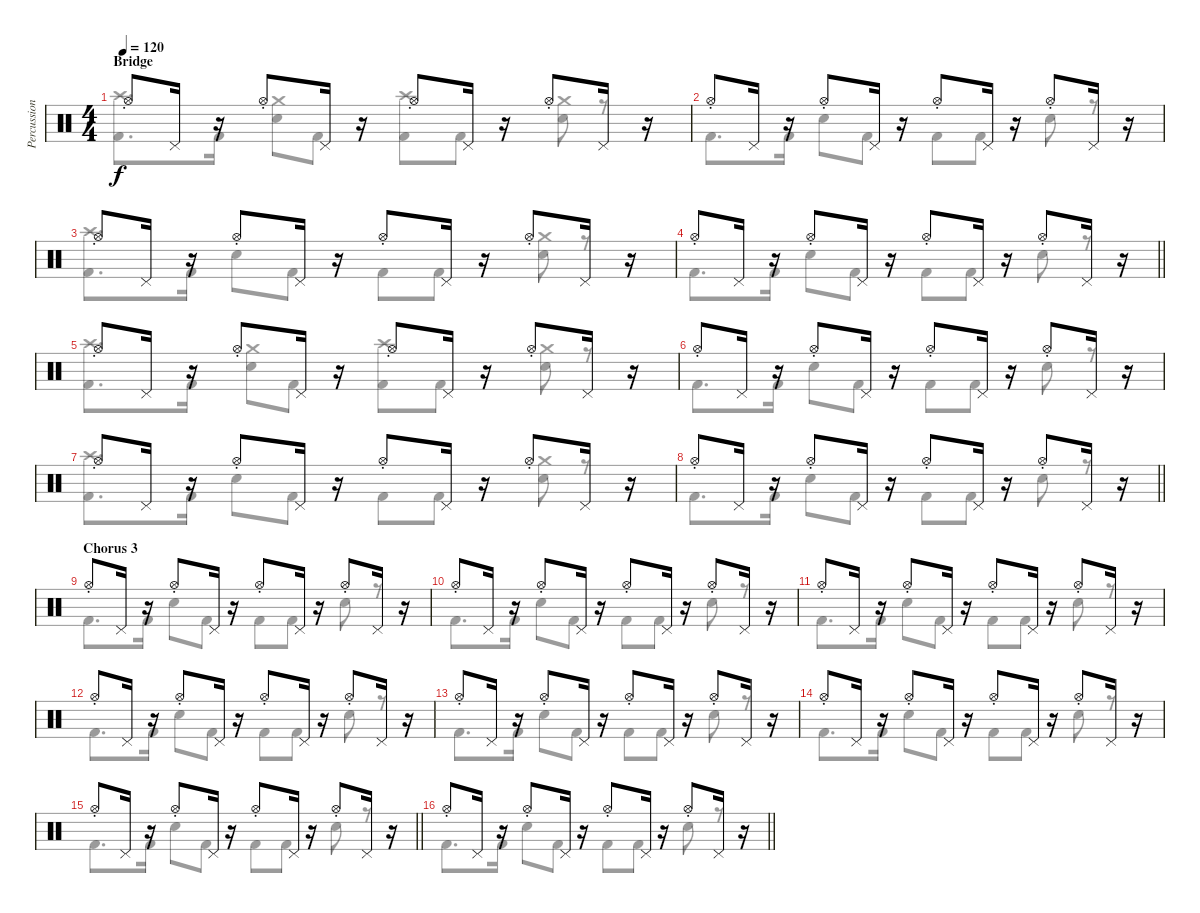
\track ("Percussion" "Percussion") {instrument percussion}
\staff {score}
\articulation defaults
\voice
\ts (4 4)
\section ("" "Bridge")
\tempo 120
\clef neutral
\ks c "Hi-Hat (open)"{st}.8{dy f} "Pedal Hi-Hat (hit)".16
r.16 "Hi-Hat (open)"{st}.8 "Pedal Hi-Hat (hit)".16 r.16 "Hi-Hat (open)"{st}.8 "Pedal Hi-Hat (hit)".16 r.16 "Hi-Hat (open)"{st}.8 "Pedal Hi-Hat (hit)".16 r.16 |
"Hi-Hat (open)"{st}.8 "Pedal Hi-Hat (hit)".16 r.16 "Hi-Hat (open)"{st}.8 "Pedal Hi-Hat (hit)".16 r.16 "Hi-Hat (open)"{st}.8 "Pedal Hi-Hat (hit)".16 r.16 "Hi-Hat (open)"{st}.8 "Pedal Hi-Hat (hit)".16 r.16 |
"Hi-Hat (open)"{st}.8 "Pedal Hi-Hat (hit)".16 r.16 "Hi-Hat (open)"{st}.8 "Pedal Hi-Hat (hit)".16 r.16 "Hi-Hat (open)"{st}.8 "Pedal Hi-Hat (hit)".16 r.16 "Hi-Hat (open)"{st}.8 "Pedal Hi-Hat (hit)".16 r.16 |
\barLineRight lightlight "Hi-Hat (open)"{st}.8 "Pedal Hi-Hat (hit)".16
r.16 "Hi-Hat (open)"{st}.8 "Pedal Hi-Hat (hit)".16 r.16 "Hi-Hat (open)"{st}.8 "Pedal Hi-Hat (hit)".16 r.16 "Hi-Hat (open)"{st}.8 "Pedal Hi-Hat (hit)".16 r.16 |
"Hi-Hat (open)"{st}.8 "Pedal Hi-Hat (hit)".16 r.16 "Hi-Hat (open)"{st}.8 "Pedal Hi-Hat (hit)".16 r.16 "Hi-Hat (open)"{st}.8 "Pedal Hi-Hat (hit)".16 r.16 "Hi-Hat (open)"{st}.8 "Pedal Hi-Hat (hit)".16 r.16 |
"Hi-Hat (open)"{st}.8 "Pedal Hi-Hat (hit)".16 r.16 "Hi-Hat (open)"{st}.8 "Pedal Hi-Hat (hit)".16 r.16 "Hi-Hat (open)"{st}.8 "Pedal Hi-Hat (hit)".16 r.16 "Hi-Hat (open)"{st}.8 "Pedal Hi-Hat (hit)".16 r.16 |
"Hi-Hat (open)"{st}.8 "Pedal Hi-Hat (hit)".16 r.16 "Hi-Hat (open)"{st}.8 "Pedal Hi-Hat (hit)".16 r.16 "Hi-Hat (open)"{st}.8 "Pedal Hi-Hat (hit)".16 r.16 "Hi-Hat (open)"{st}.8 "Pedal Hi-Hat (hit)".16 r.16 |
\barLineRight lightlight "Hi-Hat (open)"{st}.8 "Pedal Hi-Hat (hit)".16
r.16 "Hi-Hat (open)"{st}.8 "Pedal Hi-Hat (hit)".16 r.16 "Hi-Hat (open)"{st}.8 "Pedal Hi-Hat (hit)".16 r.16 "Hi-Hat (open)"{st}.8 "Pedal Hi-Hat (hit)".16 r.16 |
\section ("" "Chorus 3")
"Hi-Hat (open)"{st}.8 "Pedal Hi-Hat (hit)".16 r.16 "Hi-Hat (open)"{st}.8 "Pedal Hi-Hat (hit)".16 r.16 "Hi-Hat (open)"{st}.8 "Pedal Hi-Hat (hit)".16 r.16 "Hi-Hat (open)"{st}.8 "Pedal Hi-Hat (hit)".16 r.16 |
"Hi-Hat (open)"{st}.8 "Pedal Hi-Hat (hit)".16 r.16 "Hi-Hat (open)"{st}.8 "Pedal Hi-Hat (hit)".16 r.16 "Hi-Hat (open)"{st}.8 "Pedal Hi-Hat (hit)".16 r.16 "Hi-Hat (open)"{st}.8 "Pedal Hi-Hat (hit)".16 r.16 |
"Hi-Hat (open)"{st}.8 "Pedal Hi-Hat (hit)".16 r.16 "Hi-Hat (open)"{st}.8 "Pedal Hi-Hat (hit)".16 r.16 "Hi-Hat (open)"{st}.8 "Pedal Hi-Hat (hit)".16 r.16 "Hi-Hat (open)"{st}.8 "Pedal Hi-Hat (hit)".16 r.16 |
"Hi-Hat (open)"{st}.8 "Pedal Hi-Hat (hit)".16 r.16 "Hi-Hat (open)"{st}.8 "Pedal Hi-Hat (hit)".16 r.16 "Hi-Hat (open)"{st}.8 "Pedal Hi-Hat (hit)".16 r.16 "Hi-Hat (open)"{st}.8 "Pedal Hi-Hat (hit)".16 r.16 |
"Hi-Hat (open)"{st}.8 "Pedal Hi-Hat (hit)".16 r.16 "Hi-Hat (open)"{st}.8 "Pedal Hi-Hat (hit)".16 r.16 "Hi-Hat (open)"{st}.8 "Pedal Hi-Hat (hit)".16 r.16 "Hi-Hat (open)"{st}.8 "Pedal Hi-Hat (hit)".16 r.16 |
"Hi-Hat (open)"{st}.8 "Pedal Hi-Hat (hit)".16 r.16 "Hi-Hat (open)"{st}.8 "Pedal Hi-Hat (hit)".16 r.16 "Hi-Hat (open)"{st}.8 "Pedal Hi-Hat (hit)".16 r.16 "Hi-Hat (open)"{st}.8 "Pedal Hi-Hat (hit)".16 r.16 |
\barLineRight lightlight "Hi-Hat (open)"{st}.8 "Pedal Hi-Hat (hit)".16
r.16 "Hi-Hat (open)"{st}.8 "Pedal Hi-Hat (hit)".16 r.16 "Hi-Hat (open)"{st}.8 "Pedal Hi-Hat (hit)".16 r.16 "Hi-Hat (open)"{st}.8 "Pedal Hi-Hat (hit)".16 r.16 |
\barLineRight lightlight "Hi-Hat (open)"{st}.8 "Pedal Hi-Hat (hit)".16
r.16 "Hi-Hat (open)"{st}.8 "Pedal Hi-Hat (hit)".16 r.16 "Hi-Hat (open)"{st}.8 "Pedal Hi-Hat (hit)".16 r.16 "Hi-Hat (open)"{st}.8 "Pedal Hi-Hat (hit)".16 r.16
\voice
\clef neutral
\ottava regular
\simile none
\ks c
("Crash high (hit)" "Kick (hit) 2").8{d dy f} "Kick (hit) 2".16 ("Crash medium (hit)" "Electric Snare (hit)").8 "Kick (hit) 2".8 ("Crash high (hit)" "Kick (hit) 2").8 "Kick (hit) 2".8 ("Crash medium (hit)" "Electric Snare (hit)").8 r.8 |
"Kick (hit) 2".8{d} "Kick (hit) 2".16 "Electric Snare (hit)".8 "Kick (hit) 2".8 "Kick (hit) 2".8 "Kick (hit) 2".8 "Electric Snare (hit)".8 r.8 |
("Crash high (hit)" "Kick (hit) 2").8{d} "Kick (hit) 2".16 "Electric Snare (hit)".8 "Kick (hit) 2".8 "Kick (hit) 2".8 "Kick (hit) 2".8 ("Crash medium (hit)" "Electric Snare (hit)").8 r.8 |
\barLineRight lightlight "Kick (hit) 2".8{d} "Kick (hit) 2".16 "Electric Snare (hit)".8 "Kick (hit) 2".8 "Kick (hit) 2".8 "Kick (hit) 2".8 "Electric Snare (hit)".8
r.8 |
("Crash high (hit)" "Kick (hit) 2").8{d} "Kick (hit) 2".16 ("Crash medium (hit)" "Electric Snare (hit)").8 "Kick (hit) 2".8 ("Crash high (hit)" "Kick (hit) 2").8 "Kick (hit) 2".8 ("Crash medium (hit)" "Electric Snare (hit)").8 r.8 |
"Kick (hit) 2".8{d} "Kick (hit) 2".16 "Electric Snare (hit)".8 "Kick (hit) 2".8 "Kick (hit) 2".8 "Kick (hit) 2".8 "Electric Snare (hit)".8 r.8 |
("Crash high (hit)" "Kick (hit) 2").8{d} "Kick (hit) 2".16 "Electric Snare (hit)".8 "Kick (hit) 2".8 "Kick (hit) 2".8 "Kick (hit) 2".8 ("Crash medium (hit)" "Electric Snare (hit)").8 r.8 |
\barLineRight lightlight "Kick (hit) 2".8{d} "Kick (hit) 2".16 "Electric Snare (hit)".8 "Kick (hit) 2".8 "Kick (hit) 2".8 "Kick (hit) 2".8 "Electric Snare (hit)".8
r.8 |
"Kick (hit) 2".8{d} "Kick (hit) 2".16 "Electric Snare (hit)".8 "Kick (hit) 2".8 "Kick (hit) 2".8 "Kick (hit) 2".8 "Electric Snare (hit)".8 r.8 |
"Kick (hit) 2".8{d} "Kick (hit) 2".16 "Electric Snare (hit)".8 "Kick (hit) 2".8 "Kick (hit) 2".8 "Kick (hit) 2".8 "Electric Snare (hit)".8 r.8 |
"Kick (hit) 2".8{d} "Kick (hit) 2".16 "Electric Snare (hit)".8 "Kick (hit) 2".8 "Kick (hit) 2".8 "Kick (hit) 2".8 "Electric Snare (hit)".8 r.8 |
"Kick (hit) 2".8{d} "Kick (hit) 2".16 "Electric Snare (hit)".8 "Kick (hit) 2".8 "Kick (hit) 2".8 "Kick (hit) 2".8 "Electric Snare (hit)".8 r.8 |
"Kick (hit) 2".8{d} "Kick (hit) 2".16 "Electric Snare (hit)".8 "Kick (hit) 2".8 "Kick (hit) 2".8 "Kick (hit) 2".8 "Electric Snare (hit)".8 r.8 |
"Kick (hit) 2".8{d} "Kick (hit) 2".16 "Electric Snare (hit)".8 "Kick (hit) 2".8 "Kick (hit) 2".8 "Kick (hit) 2".8 "Electric Snare (hit)".8 r.8 |
\barLineRight lightlight "Kick (hit) 2".8{d} "Kick (hit) 2".16 "Electric Snare (hit)".8 "Kick (hit) 2".8 "Kick (hit) 2".8 "Kick (hit) 2".8 "Electric Snare (hit)".8
r.8 |
\barLineRight lightlight "Kick (hit) 2".8{d} "Kick (hit) 2".16 "Electric Snare (hit)".8 "Kick (hit) 2".8 "Kick (hit) 2".8 "Kick (hit) 2".8 "Electric Snare (hit)".8
r.8
